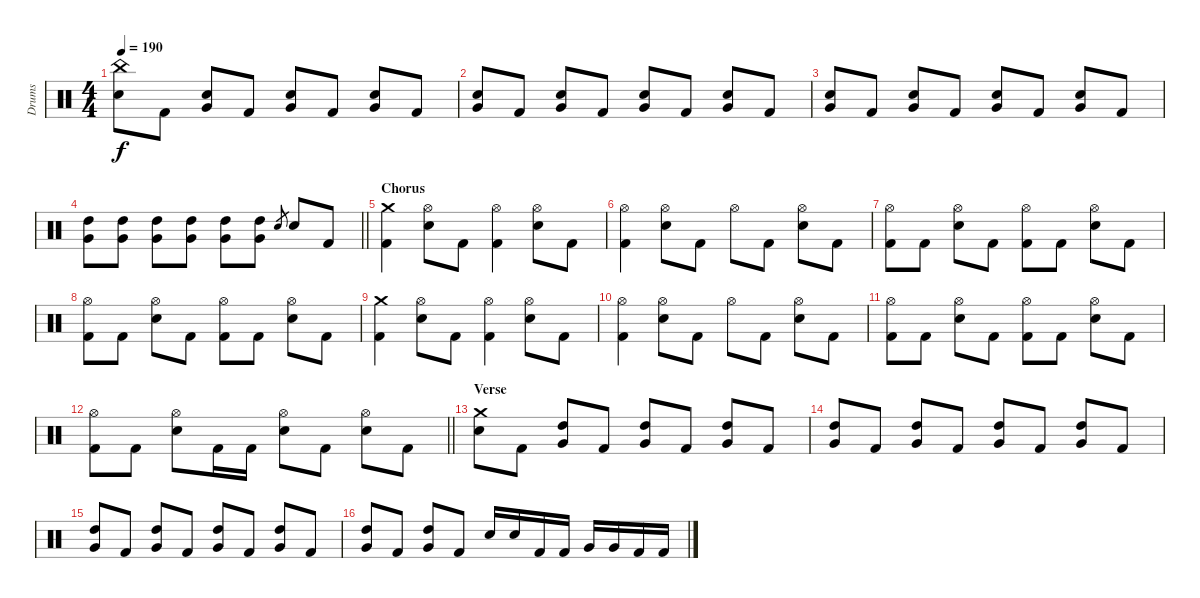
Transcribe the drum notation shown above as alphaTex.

\track ("Drums" "Drums") {instrument percussion}
\staff {score}
\articulation defaults
\ts (4 4)
\tempo 190
\clef neutral
\ks c
("China (hit)" "Snare (hit) 2").8{dy f} "Kick (hit) 2".8 ("Snare (hit) 2" "Very Low Tom (hit)").8 "Kick (hit) 2".8 ("Snare (hit) 2" "Very Low Tom (hit)").8 "Kick (hit) 2".8 ("Snare (hit) 2" "Very Low Tom (hit)").8 "Kick (hit) 2".8 |
("Snare (hit) 2" "Very Low Tom (hit)").8 "Kick (hit) 2".8 ("Snare (hit) 2" "Very Low Tom (hit)").8 "Kick (hit) 2".8 ("Snare (hit) 2" "Very Low Tom (hit)").8 "Kick (hit) 2".8 ("Snare (hit) 2" "Very Low Tom (hit)").8 "Kick (hit) 2".8 |
("Snare (hit) 2" "Very Low Tom (hit)").8 "Kick (hit) 2".8 ("Snare (hit) 2" "Very Low Tom (hit)").8 "Kick (hit) 2".8 ("Snare (hit) 2" "Very Low Tom (hit)").8 "Kick (hit) 2".8 ("Snare (hit) 2" "Very Low Tom (hit)").8 "Kick (hit) 2".8 |
\barLineRight lightlight
("High Tom (hit)" "Very Low Tom (hit)").8 ("High Tom (hit)" "Very Low Tom (hit)").8 ("High Tom (hit)" "Very Low Tom (hit)").8 ("High Tom (hit)" "Very Low Tom (hit)").8 ("High Tom (hit)" "Very Low Tom (hit)").8 ("High Tom (hit)" "Very Low Tom (hit)").8 "Snare (hit) 2".8{gr} "Snare (hit) 2".8 "Kick (hit) 2".8 |
\section ("" "Chorus")
("Crash medium (hit)" "Kick (hit) 2").4 ("Hi-Hat (open)" "Snare (hit) 2").8 "Kick (hit) 2".8 ("Hi-Hat (open)" "Kick (hit) 2").4 ("Hi-Hat (open)" "Snare (hit) 2").8 "Kick (hit) 2".8 |
("Hi-Hat (open)" "Kick (hit) 2").4 ("Hi-Hat (open)" "Snare (hit) 2").8 "Kick (hit) 2".8 "Hi-Hat (open)".8 "Kick (hit) 2".8 ("Hi-Hat (open)" "Snare (hit) 2").8 "Kick (hit) 2".8 |
("Hi-Hat (open)" "Kick (hit) 2").8 "Kick (hit) 2".8 ("Hi-Hat (open)" "Snare (hit) 2").8 "Kick (hit) 2".8 ("Hi-Hat (open)" "Kick (hit) 2").8 "Kick (hit) 2".8 ("Hi-Hat (open)" "Snare (hit) 2").8 "Kick (hit) 2".8 |
("Hi-Hat (open)" "Kick (hit) 2").8 "Kick (hit) 2".8 ("Hi-Hat (open)" "Snare (hit) 2").8 "Kick (hit) 2".8 ("Hi-Hat (open)" "Kick (hit) 2").8 "Kick (hit) 2".8 ("Hi-Hat (open)" "Snare (hit) 2").8 "Kick (hit) 2".8 |
("Crash medium (hit)" "Kick (hit) 2").4 ("Hi-Hat (open)" "Snare (hit) 2").8 "Kick (hit) 2".8 ("Hi-Hat (open)" "Kick (hit) 2").4 ("Hi-Hat (open)" "Snare (hit) 2").8 "Kick (hit) 2".8 |
("Hi-Hat (open)" "Kick (hit) 2").4 ("Hi-Hat (open)" "Snare (hit) 2").8 "Kick (hit) 2".8 "Hi-Hat (open)".8 "Kick (hit) 2".8 ("Hi-Hat (open)" "Snare (hit) 2").8 "Kick (hit) 2".8 |
("Hi-Hat (open)" "Kick (hit) 2").8 "Kick (hit) 2".8 ("Hi-Hat (open)" "Snare (hit) 2").8 "Kick (hit) 2".8 ("Hi-Hat (open)" "Kick (hit) 2").8 "Kick (hit) 2".8 ("Hi-Hat (open)" "Snare (hit) 2").8 "Kick (hit) 2".8 |
\barLineRight lightlight
("Hi-Hat (open)" "Kick (hit) 2").8 "Kick (hit) 2".8 ("Hi-Hat (open)" "Snare (hit) 2").8 "Kick (hit) 2".16 "Kick (hit) 2".16 ("Hi-Hat (open)" "Snare (hit) 2").8 "Kick (hit) 2".8 ("Hi-Hat (open)" "Snare (hit) 2").8 "Kick (hit) 2".8 |
\section ("" "Verse")
("Crash medium (hit)" "Snare (hit) 2").8 "Kick (hit) 2".8 ("High Tom (hit)" "Very Low Tom (hit)").8 "Kick (hit) 2".8 ("High Tom (hit)" "Very Low Tom (hit)").8 "Kick (hit) 2".8 ("High Tom (hit)" "Very Low Tom (hit)").8 "Kick (hit) 2".8 |
("High Tom (hit)" "Very Low Tom (hit)").8 "Kick (hit) 2".8 ("High Tom (hit)" "Very Low Tom (hit)").8 "Kick (hit) 2".8 ("High Tom (hit)" "Very Low Tom (hit)").8 "Kick (hit) 2".8 ("High Tom (hit)" "Very Low Tom (hit)").8 "Kick (hit) 2".8 |
("High Tom (hit)" "Very Low Tom (hit)").8 "Kick (hit) 2".8 ("High Tom (hit)" "Very Low Tom (hit)").8 "Kick (hit) 2".8 ("High Tom (hit)" "Very Low Tom (hit)").8 "Kick (hit) 2".8 ("High Tom (hit)" "Very Low Tom (hit)").8 "Kick (hit) 2".8 |
("High Tom (hit)" "Very Low Tom (hit)").8 "Kick (hit) 2".8 ("High Tom (hit)" "Very Low Tom (hit)").8 "Kick (hit) 2".8 "Snare (hit) 2".16 "Snare (hit) 2".16 "Kick (hit) 2".16 "Kick (hit) 2".16 "Very Low Tom (hit)".16 "Very Low Tom (hit)".16 "Kick (hit) 2".16 "Kick (hit) 2".16
